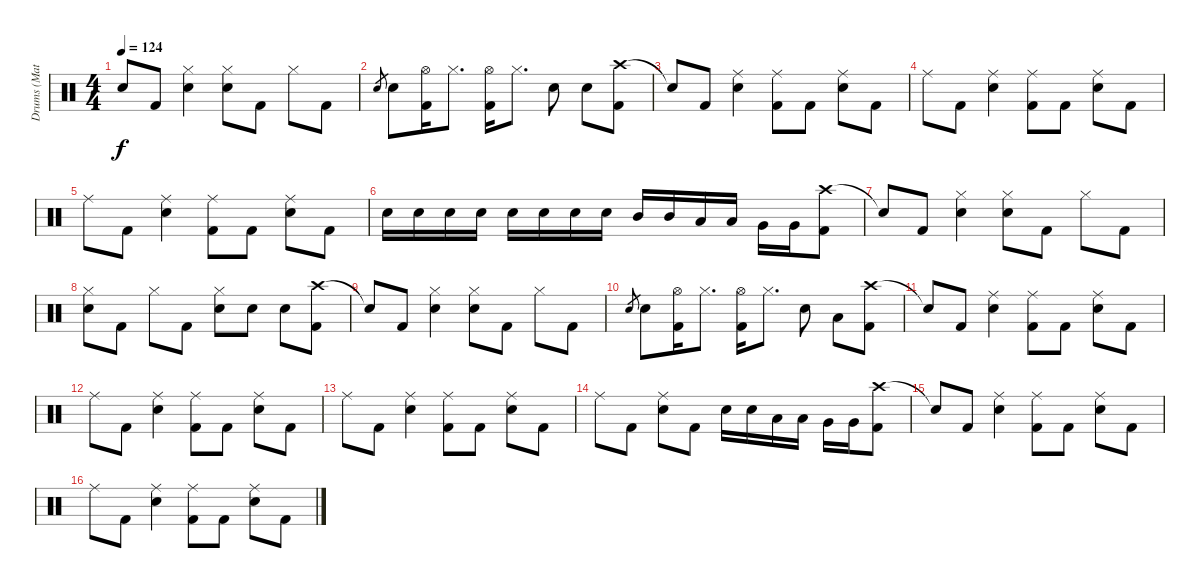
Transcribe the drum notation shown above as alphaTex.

\track ("Drums (Matt)" "Drums (Mat") {instrument percussion}
\staff {score}
\articulation defaults
\ts (4 4)
\tempo 124
\clef neutral
\ks c "Snare (hit)"{t}.8{dy f} "Kick (hit) 2".8
("Hi-Hat (closed)" "Snare (hit) 2").4 ("Hi-Hat (closed)" "Snare (hit) 2").8 "Kick (hit) 2".8 "Hi-Hat (closed)".8 "Kick (hit) 2".8 |
"Snare (hit) 2".8{gr} "Snare (hit) 2".8 ("Hi-Hat (open)" "Kick (hit) 2").16 "Hi-Hat (closed)".8{d} ("Hi-Hat (open)" "Kick (hit) 2").16 "Hi-Hat (closed)".8{d} "Snare (hit) 2".8 "Snare (hit) 2".8 ("Crash high (hit)" "Kick (hit) 2").8 |
"Snare (hit)"{t}.8 "Kick (hit) 2".8 ("Ride (middle)" "Snare (hit) 2").4 ("Ride (middle)" "Kick (hit) 2").8 "Kick (hit) 2".8 ("Ride (middle)" "Snare (hit) 2").8 "Kick (hit) 2".8 |
"Ride (middle)".8 "Kick (hit) 2".8 ("Ride (middle)" "Snare (hit) 2").4 ("Ride (middle)" "Kick (hit) 2").8 "Kick (hit) 2".8 ("Ride (middle)" "Snare (hit) 2").8 "Kick (hit) 2".8 |
"Ride (middle)".8 "Kick (hit) 2".8 ("Ride (middle)" "Snare (hit) 2").4 ("Ride (middle)" "Kick (hit) 2").8 "Kick (hit) 2".8 ("Ride (middle)" "Snare (hit) 2").8 "Kick (hit) 2".8 |
"Snare (hit) 2".16 "Snare (hit) 2".16 "Snare (hit) 2".16 "Snare (hit) 2".16 "Snare (hit) 2".16 "Snare (hit) 2".16 "Snare (hit) 2".16 "Snare (hit) 2".16 "Mid Tom (hit)".16 "Mid Tom (hit)".16 "Low Tom (hit)".16 "Low Tom (hit)".16 "Very Low Tom (hit)".16 "Very Low Tom (hit)".16 ("Crash high (hit)" "Kick (hit) 2").8 |
"Snare (hit)"{t}.8 "Kick (hit) 2".8 ("Hi-Hat (closed)" "Snare (hit) 2").4 ("Hi-Hat (closed)" "Snare (hit) 2").8 "Kick (hit) 2".8 "Hi-Hat (closed)".8 "Kick (hit) 2".8 |
("Hi-Hat (closed)" "Snare (hit) 2").8 "Kick (hit) 2".8 "Hi-Hat (closed)".8 "Kick (hit) 2".8 ("Hi-Hat (closed)" "Snare (hit) 2").8 "Snare (hit) 2".8 "Snare (hit) 2".8 ("Crash high (hit)" "Kick (hit) 2").8 |
"Snare (hit)"{t}.8 "Kick (hit) 2".8 ("Hi-Hat (closed)" "Snare (hit) 2").4 ("Hi-Hat (closed)" "Snare (hit) 2").8 "Kick (hit) 2".8 "Hi-Hat (closed)".8 "Kick (hit) 2".8 |
"Snare (hit) 2".8{gr} "Snare (hit) 2".8 ("Hi-Hat (open)" "Kick (hit) 2").16 "Hi-Hat (closed)".8{d} ("Hi-Hat (open)" "Kick (hit) 2").16 "Hi-Hat (closed)".8{d} "Snare (hit) 2".8 "Low Tom (hit)".8 ("Crash high (hit)" "Kick (hit) 2").8 |
"Snare (hit)"{t}.8 "Kick (hit) 2".8 ("Ride (middle)" "Snare (hit) 2").4 ("Ride (middle)" "Kick (hit) 2").8 "Kick (hit) 2".8 ("Ride (middle)" "Snare (hit) 2").8 "Kick (hit) 2".8 |
"Ride (middle)".8 "Kick (hit) 2".8 ("Ride (middle)" "Snare (hit) 2").4 ("Ride (middle)" "Kick (hit) 2").8 "Kick (hit) 2".8 ("Ride (middle)" "Snare (hit) 2").8 "Kick (hit) 2".8 |
"Ride (middle)".8 "Kick (hit) 2".8 ("Ride (middle)" "Snare (hit) 2").4 ("Ride (middle)" "Kick (hit) 2").8 "Kick (hit) 2".8 ("Ride (middle)" "Snare (hit) 2").8 "Kick (hit) 2".8 |
"Ride (middle)".8 "Kick (hit) 2".8 ("Ride (middle)" "Snare (hit) 2").8 "Kick (hit) 2".8 "Snare (hit) 2".16 "Snare (hit) 2".16 "Low Tom (hit)".16 "Low Tom (hit)".16 "Very Low Tom (hit)".16 "Very Low Tom (hit)".16 ("Crash high (hit)" "Kick (hit) 2").8 |
"Snare (hit)"{t}.8 "Kick (hit) 2".8 ("Ride (middle)" "Snare (hit) 2").4 ("Ride (middle)" "Kick (hit) 2").8 "Kick (hit) 2".8 ("Ride (middle)" "Snare (hit) 2").8 "Kick (hit) 2".8 |
"Ride (middle)".8 "Kick (hit) 2".8 ("Ride (middle)" "Snare (hit) 2").4 ("Ride (middle)" "Kick (hit) 2").8 "Kick (hit) 2".8 ("Ride (middle)" "Snare (hit) 2").8 "Kick (hit) 2".8
